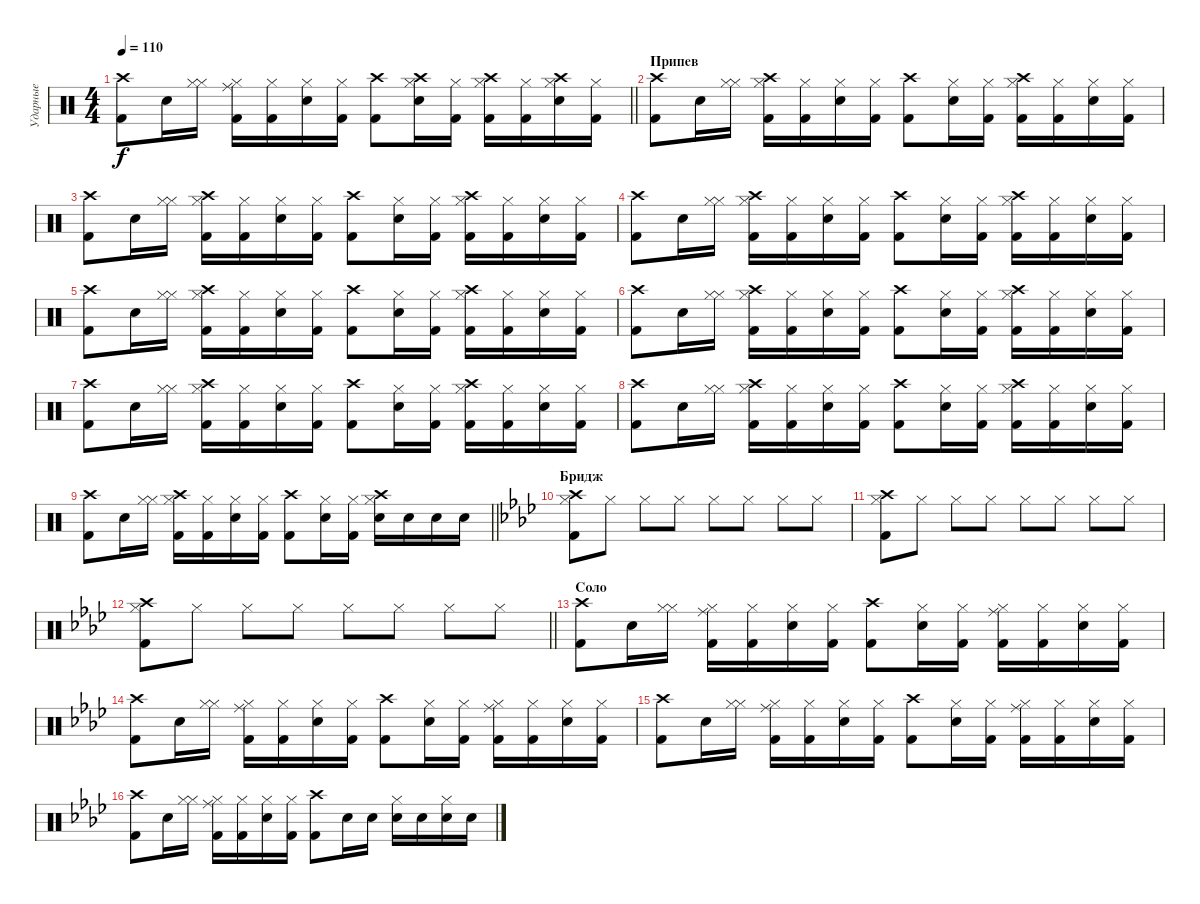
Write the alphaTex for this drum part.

\track ("Ударные" "Ударные") {instrument percussion}
\staff {score}
\articulation defaults
\ts (4 4)
\tempo 110
\clef neutral
\barLineRight lightlight
\ks c
("Crash high (hit)" "Kick (hit) 2").8{dy f} "Snare (hit) 2".16 ("Hi-Hat (closed)" "Hi-Hat (closed)").16 ("Ride (middle)" "Hi-Hat (closed)" "Kick (hit) 2").16 ("Hi-Hat (closed)" "Kick (hit) 2").16 ("Hi-Hat (closed)" "Snare (hit) 2").16 ("Hi-Hat (closed)" "Kick (hit) 2").16 ("Crash high (hit)" "Kick (hit) 2").8 ("Crash high (hit)" "Hi-Hat (closed)" "Snare (hit) 2").16 ("Hi-Hat (closed)" "Kick (hit) 2").16 ("Crash high (hit)" "Hi-Hat (closed)" "Kick (hit) 2").16 ("Hi-Hat (closed)" "Kick (hit) 2").16 ("Crash high (hit)" "Hi-Hat (closed)" "Snare (hit) 2").16 ("Hi-Hat (closed)" "Kick (hit) 2").16 |
\section ("" "Припев")
("Crash high (hit)" "Kick (hit) 2").8 "Snare (hit) 2".16 ("Hi-Hat (closed)" "Hi-Hat (closed)").16 ("Crash high (hit)" "Hi-Hat (closed)" "Kick (hit) 2").16 ("Hi-Hat (closed)" "Kick (hit) 2").16 ("Hi-Hat (closed)" "Snare (hit) 2").16 ("Hi-Hat (closed)" "Kick (hit) 2").16 ("Crash high (hit)" "Kick (hit) 2").8 ("Hi-Hat (closed)" "Snare (hit) 2").16 ("Hi-Hat (closed)" "Kick (hit) 2").16 ("Crash high (hit)" "Hi-Hat (closed)" "Kick (hit) 2").16 ("Hi-Hat (closed)" "Kick (hit) 2").16 ("Hi-Hat (closed)" "Snare (hit) 2").16 ("Hi-Hat (closed)" "Kick (hit) 2").16 |
("Crash high (hit)" "Kick (hit) 2").8 "Snare (hit) 2".16 ("Hi-Hat (closed)" "Hi-Hat (closed)").16 ("Crash high (hit)" "Hi-Hat (closed)" "Kick (hit) 2").16 ("Hi-Hat (closed)" "Kick (hit) 2").16 ("Hi-Hat (closed)" "Snare (hit) 2").16 ("Hi-Hat (closed)" "Kick (hit) 2").16 ("Crash high (hit)" "Kick (hit) 2").8 ("Hi-Hat (closed)" "Snare (hit) 2").16 ("Hi-Hat (closed)" "Kick (hit) 2").16 ("Crash high (hit)" "Hi-Hat (closed)" "Kick (hit) 2").16 ("Hi-Hat (closed)" "Kick (hit) 2").16 ("Hi-Hat (closed)" "Snare (hit) 2").16 ("Hi-Hat (closed)" "Kick (hit) 2").16 |
("Crash high (hit)" "Kick (hit) 2").8 "Snare (hit) 2".16 ("Hi-Hat (closed)" "Hi-Hat (closed)").16 ("Crash high (hit)" "Hi-Hat (closed)" "Kick (hit) 2").16 ("Hi-Hat (closed)" "Kick (hit) 2").16 ("Hi-Hat (closed)" "Snare (hit) 2").16 ("Hi-Hat (closed)" "Kick (hit) 2").16 ("Crash high (hit)" "Kick (hit) 2").8 ("Hi-Hat (closed)" "Snare (hit) 2").16 ("Hi-Hat (closed)" "Kick (hit) 2").16 ("Crash high (hit)" "Hi-Hat (closed)" "Kick (hit) 2").16 ("Hi-Hat (closed)" "Kick (hit) 2").16 ("Hi-Hat (closed)" "Snare (hit) 2").16 ("Hi-Hat (closed)" "Kick (hit) 2").16 |
("Crash high (hit)" "Kick (hit) 2").8 "Snare (hit) 2".16 ("Hi-Hat (closed)" "Hi-Hat (closed)").16 ("Crash high (hit)" "Hi-Hat (closed)" "Kick (hit) 2").16 ("Hi-Hat (closed)" "Kick (hit) 2").16 ("Hi-Hat (closed)" "Snare (hit) 2").16 ("Hi-Hat (closed)" "Kick (hit) 2").16 ("Crash high (hit)" "Kick (hit) 2").8 ("Hi-Hat (closed)" "Snare (hit) 2").16 ("Hi-Hat (closed)" "Kick (hit) 2").16 ("Crash high (hit)" "Hi-Hat (closed)" "Kick (hit) 2").16 ("Hi-Hat (closed)" "Kick (hit) 2").16 ("Hi-Hat (closed)" "Snare (hit) 2").16 ("Hi-Hat (closed)" "Kick (hit) 2").16 |
("Crash high (hit)" "Kick (hit) 2").8 "Snare (hit) 2".16 ("Hi-Hat (closed)" "Hi-Hat (closed)").16 ("Crash high (hit)" "Hi-Hat (closed)" "Kick (hit) 2").16 ("Hi-Hat (closed)" "Kick (hit) 2").16 ("Hi-Hat (closed)" "Snare (hit) 2").16 ("Hi-Hat (closed)" "Kick (hit) 2").16 ("Crash high (hit)" "Kick (hit) 2").8 ("Hi-Hat (closed)" "Snare (hit) 2").16 ("Hi-Hat (closed)" "Kick (hit) 2").16 ("Crash high (hit)" "Hi-Hat (closed)" "Kick (hit) 2").16 ("Hi-Hat (closed)" "Kick (hit) 2").16 ("Hi-Hat (closed)" "Snare (hit) 2").16 ("Hi-Hat (closed)" "Kick (hit) 2").16 |
("Crash high (hit)" "Kick (hit) 2").8 "Snare (hit) 2".16 ("Hi-Hat (closed)" "Hi-Hat (closed)").16 ("Crash high (hit)" "Hi-Hat (closed)" "Kick (hit) 2").16 ("Hi-Hat (closed)" "Kick (hit) 2").16 ("Hi-Hat (closed)" "Snare (hit) 2").16 ("Hi-Hat (closed)" "Kick (hit) 2").16 ("Crash high (hit)" "Kick (hit) 2").8 ("Hi-Hat (closed)" "Snare (hit) 2").16 ("Hi-Hat (closed)" "Kick (hit) 2").16 ("Crash high (hit)" "Hi-Hat (closed)" "Kick (hit) 2").16 ("Hi-Hat (closed)" "Kick (hit) 2").16 ("Hi-Hat (closed)" "Snare (hit) 2").16 ("Hi-Hat (closed)" "Kick (hit) 2").16 |
("Crash high (hit)" "Kick (hit) 2").8 "Snare (hit) 2".16 ("Hi-Hat (closed)" "Hi-Hat (closed)").16 ("Crash high (hit)" "Hi-Hat (closed)" "Kick (hit) 2").16 ("Hi-Hat (closed)" "Kick (hit) 2").16 ("Hi-Hat (closed)" "Snare (hit) 2").16 ("Hi-Hat (closed)" "Kick (hit) 2").16 ("Crash high (hit)" "Kick (hit) 2").8 ("Hi-Hat (closed)" "Snare (hit) 2").16 ("Hi-Hat (closed)" "Kick (hit) 2").16 ("Crash high (hit)" "Hi-Hat (closed)" "Kick (hit) 2").16 ("Hi-Hat (closed)" "Kick (hit) 2").16 ("Hi-Hat (closed)" "Snare (hit) 2").16 ("Hi-Hat (closed)" "Kick (hit) 2").16 |
\barLineRight lightlight
("Crash high (hit)" "Kick (hit) 2").8 "Snare (hit) 2".16 ("Hi-Hat (closed)" "Hi-Hat (closed)").16 ("Crash high (hit)" "Hi-Hat (closed)" "Kick (hit) 2").16 ("Hi-Hat (closed)" "Kick (hit) 2").16 ("Hi-Hat (closed)" "Snare (hit) 2").16 ("Hi-Hat (closed)" "Kick (hit) 2").16 ("Crash high (hit)" "Kick (hit) 2").8 ("Hi-Hat (closed)" "Snare (hit) 2").16 ("Hi-Hat (closed)" "Kick (hit) 2").16 ("Crash high (hit)" "Hi-Hat (closed)" "Electric Snare (hit)").16 "Electric Snare (hit)".16 "Electric Snare (hit)".16 "Electric Snare (hit)".16 |
\section ("" "Бридж")
\ks fminor
("Crash high (hit)" "Kick (hit) 2" "Hi-Hat (closed)").8 "Hi-Hat (closed)".8 "Hi-Hat (closed)".8 "Hi-Hat (closed)".8 "Hi-Hat (closed)".8 "Hi-Hat (closed)".8 "Hi-Hat (closed)".8 "Hi-Hat (closed)".8 |
("Crash high (hit)" "Kick (hit) 2" "Hi-Hat (closed)").8 "Hi-Hat (closed)".8 "Hi-Hat (closed)".8 "Hi-Hat (closed)".8 "Hi-Hat (closed)".8 "Hi-Hat (closed)".8 "Hi-Hat (closed)".8 "Hi-Hat (closed)".8 |
\barLineRight lightlight
("Crash high (hit)" "Kick (hit) 2" "Hi-Hat (closed)").8 "Hi-Hat (closed)".8 "Hi-Hat (closed)".8 "Hi-Hat (closed)".8 "Hi-Hat (closed)".8 "Hi-Hat (closed)".8 "Hi-Hat (closed)".8 "Hi-Hat (closed)".8 |
\section ("" "Соло")
("Crash high (hit)" "Kick (hit) 2").8 "Snare (hit) 2".16 ("Hi-Hat (closed)" "Hi-Hat (closed)").16 ("Ride (middle)" "Hi-Hat (closed)" "Kick (hit) 2").16 ("Hi-Hat (closed)" "Kick (hit) 2").16 ("Hi-Hat (closed)" "Snare (hit) 2").16 ("Hi-Hat (closed)" "Kick (hit) 2").16 ("Crash high (hit)" "Kick (hit) 2").8 ("Hi-Hat (closed)" "Snare (hit) 2").16 ("Hi-Hat (closed)" "Kick (hit) 2").16 ("Ride (middle)" "Hi-Hat (closed)" "Kick (hit) 2").16 ("Hi-Hat (closed)" "Kick (hit) 2").16 ("Hi-Hat (closed)" "Snare (hit) 2").16 ("Hi-Hat (closed)" "Kick (hit) 2").16 |
("Crash high (hit)" "Kick (hit) 2").8 "Snare (hit) 2".16 ("Hi-Hat (closed)" "Hi-Hat (closed)").16 ("Ride (middle)" "Hi-Hat (closed)" "Kick (hit) 2").16 ("Hi-Hat (closed)" "Kick (hit) 2").16 ("Hi-Hat (closed)" "Snare (hit) 2").16 ("Hi-Hat (closed)" "Kick (hit) 2").16 ("Crash high (hit)" "Kick (hit) 2").8 ("Hi-Hat (closed)" "Snare (hit) 2").16 ("Hi-Hat (closed)" "Kick (hit) 2").16 ("Ride (middle)" "Hi-Hat (closed)" "Kick (hit) 2").16 ("Hi-Hat (closed)" "Kick (hit) 2").16 ("Hi-Hat (closed)" "Snare (hit) 2").16 ("Hi-Hat (closed)" "Kick (hit) 2").16 |
("Crash high (hit)" "Kick (hit) 2").8 "Snare (hit) 2".16 ("Hi-Hat (closed)" "Hi-Hat (closed)").16 ("Ride (middle)" "Hi-Hat (closed)" "Kick (hit) 2").16 ("Hi-Hat (closed)" "Kick (hit) 2").16 ("Hi-Hat (closed)" "Snare (hit) 2").16 ("Hi-Hat (closed)" "Kick (hit) 2").16 ("Crash high (hit)" "Kick (hit) 2").8 ("Hi-Hat (closed)" "Snare (hit) 2").16 ("Hi-Hat (closed)" "Kick (hit) 2").16 ("Ride (middle)" "Hi-Hat (closed)" "Kick (hit) 2").16 ("Hi-Hat (closed)" "Kick (hit) 2").16 ("Hi-Hat (closed)" "Snare (hit) 2").16 ("Hi-Hat (closed)" "Kick (hit) 2").16 |
("Crash high (hit)" "Kick (hit) 2").8 "Snare (hit) 2".16 ("Hi-Hat (closed)" "Hi-Hat (closed)").16 ("Ride (middle)" "Hi-Hat (closed)" "Kick (hit) 2").16 ("Hi-Hat (closed)" "Kick (hit) 2").16 ("Hi-Hat (closed)" "Snare (hit) 2").16 ("Hi-Hat (closed)" "Kick (hit) 2").16 ("Crash high (hit)" "Kick (hit) 2").8 "Snare (hit) 2".16 "Snare (hit) 2".16 ("Hi-Hat (closed)" "Snare (hit) 2").16 "Snare (hit) 2".16 ("Hi-Hat (closed)" "Snare (hit) 2").16 "Snare (hit) 2".16
